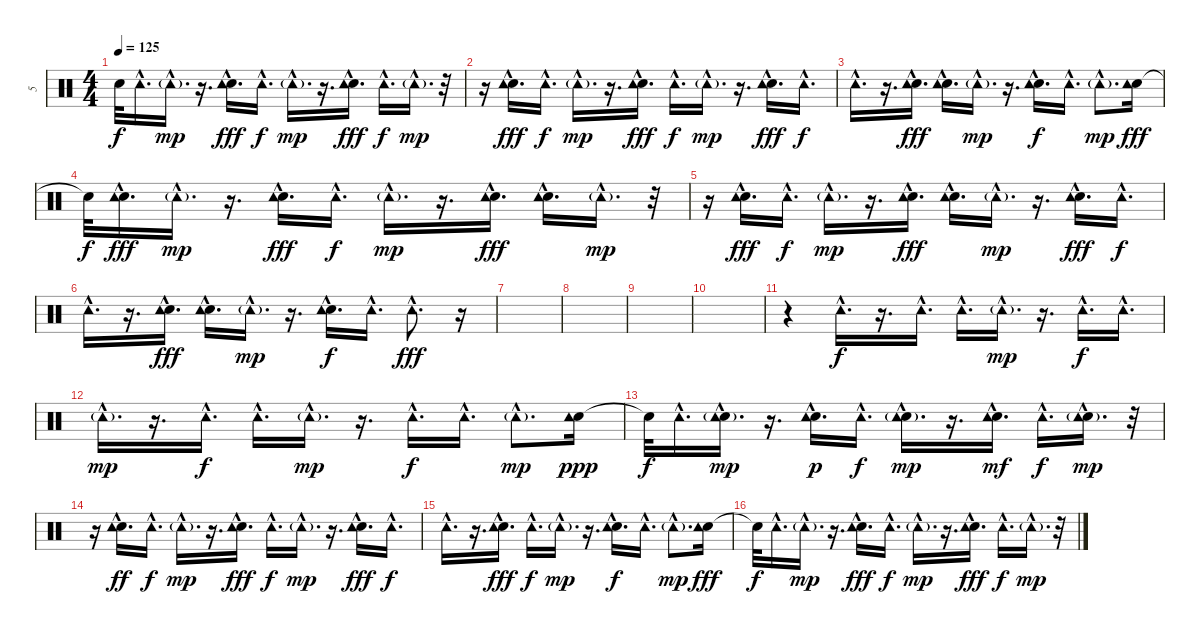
\track ("5" "5") {instrument percussion}
\staff {score}
\articulation defaults
\ts (4 4)
\tempo 125
\clef neutral
\ks c "Snare (hit)"{t}.32{dy f} "Tambourine (hit)"{hac}.16{d} "Tambourine (hit)"{g hac}.16{d dy mp}
r.16{d} ("Electric Snare (hit)"{hac} "Tambourine (hit)"{hac}).16{d dy fff} "Tambourine (hit)"{hac}.16{d dy f} "Tambourine (hit)"{g hac}.16{d dy mp} r.16{d} ("Electric Snare (hit)"{hac} "Tambourine (hit)"{hac}).16{d dy fff} "Tambourine (hit)"{hac}.16{d dy f} "Tambourine (hit)"{g hac}.16{d dy mp} r.32 |
r.16 ("Electric Snare (hit)"{hac} "Tambourine (hit)"{hac}).16{d dy fff} "Tambourine (hit)"{hac}.16{d dy f} "Tambourine (hit)"{g hac}.16{d dy mp} r.16{d} ("Electric Snare (hit)"{hac} "Tambourine (hit)"{hac}).16{d dy fff} "Tambourine (hit)"{hac}.16{d dy f} "Tambourine (hit)"{g hac}.16{d dy mp} r.16{d} ("Electric Snare (hit)"{hac} "Tambourine (hit)"{hac}).16{d dy fff} "Tambourine (hit)"{hac}.16{d dy f} |
"Tambourine (hit)"{hac}.16{d} r.16{d} ("Electric Snare (hit)"{hac} "Tambourine (hit)"{hac}).16{d dy fff} ("Electric Snare (hit)"{hac} "Tambourine (hit)"{hac}).16{d} "Tambourine (hit)"{g hac}.16{d dy mp} r.16{d} ("Electric Snare (hit)"{hac} "Tambourine (hit)"{hac}).16{d dy f} "Tambourine (hit)"{hac}.16{d} "Tambourine (hit)"{g hac}.8{d dy mp} ("Electric Snare (hit)" "Tambourine (hit)").16{dy fff} |
"Snare (hit)"{t}.32{dy f} ("Electric Snare (hit)"{hac} "Tambourine (hit)"{hac}).16{d dy fff} "Tambourine (hit)"{g hac}.16{d dy mp} r.16{d} ("Electric Snare (hit)"{hac} "Tambourine (hit)"{hac}).16{d dy fff} "Tambourine (hit)"{hac}.16{d dy f} "Tambourine (hit)"{g hac}.16{d dy mp} r.16{d} ("Electric Snare (hit)"{hac} "Tambourine (hit)"{hac}).16{d dy fff} ("Electric Snare (hit)"{hac} "Tambourine (hit)"{hac}).16{d} "Tambourine (hit)"{g hac}.16{d dy mp} r.32 |
r.16 ("Electric Snare (hit)"{hac} "Tambourine (hit)"{hac}).16{d dy fff} "Tambourine (hit)"{hac}.16{d dy f} "Tambourine (hit)"{g hac}.16{d dy mp} r.16{d} ("Electric Snare (hit)"{hac} "Tambourine (hit)"{hac}).16{d dy fff} ("Electric Snare (hit)"{hac} "Tambourine (hit)"{hac}).16{d} "Tambourine (hit)"{g hac}.16{d dy mp} r.16{d} ("Electric Snare (hit)"{hac} "Tambourine (hit)"{hac}).16{d dy fff} "Tambourine (hit)"{hac}.16{d dy f} |
"Tambourine (hit)"{hac}.16{d} r.16{d} ("Electric Snare (hit)"{hac} "Tambourine (hit)"{hac}).16{d dy fff} ("Electric Snare (hit)"{hac} "Tambourine (hit)"{hac}).16{d} "Tambourine (hit)"{g hac}.16{d dy mp} r.16{d} ("Electric Snare (hit)"{hac} "Tambourine (hit)"{hac}).16{d dy f} "Tambourine (hit)"{hac}.16{d} "Tambourine (hit)"{hac}.8{d dy fff} r.16 |
|
|
|
|
r.4 "Tambourine (hit)"{hac}.16{d dy f} r.16{d} "Tambourine (hit)"{hac}.16{d} "Tambourine (hit)"{hac}.16{d} "Tambourine (hit)"{g hac}.16{d dy mp} r.16{d} "Tambourine (hit)"{hac}.16{d dy f} "Tambourine (hit)"{hac}.16{d} |
"Tambourine (hit)"{g hac}.16{d dy mp} r.16{d} "Tambourine (hit)"{hac}.16{d dy f} "Tambourine (hit)"{hac}.16{d} "Tambourine (hit)"{g hac}.16{d dy mp} r.16{d} "Tambourine (hit)"{hac}.16{d dy f} "Tambourine (hit)"{hac}.16{d} "Tambourine (hit)"{g hac}.8{d dy mp} ("Electric Snare (hit)" "Tambourine (hit)").16{dy ppp} |
"Snare (hit)"{t}.32{dy f} "Tambourine (hit)"{hac}.16{d} ("Electric Snare (hit)"{hac} "Tambourine (hit)"{g hac}).16{d dy mp} r.16{d} ("Electric Snare (hit)"{hac} "Tambourine (hit)"{hac}).16{d dy p} "Tambourine (hit)"{hac}.16{d dy f} ("Electric Snare (hit)"{hac} "Tambourine (hit)"{g hac}).16{d dy mp} r.16{d} ("Electric Snare (hit)"{hac} "Tambourine (hit)"{hac}).16{d dy mf} "Tambourine (hit)"{hac}.16{d dy f} ("Electric Snare (hit)"{hac} "Tambourine (hit)"{g hac}).16{d dy mp} r.32 |
r.16 ("Electric Snare (hit)"{hac} "Tambourine (hit)"{hac}).16{d dy ff} "Tambourine (hit)"{hac}.16{d dy f} "Tambourine (hit)"{g hac}.16{d dy mp} r.16{d} ("Electric Snare (hit)"{hac} "Tambourine (hit)"{hac}).16{d dy fff} "Tambourine (hit)"{hac}.16{d dy f} "Tambourine (hit)"{g hac}.16{d dy mp} r.16{d} ("Electric Snare (hit)"{hac} "Tambourine (hit)"{hac}).16{d dy fff} "Tambourine (hit)"{hac}.16{d dy f} |
"Tambourine (hit)"{hac}.16{d} r.16{d} ("Electric Snare (hit)"{hac} "Tambourine (hit)"{hac}).16{d dy fff} "Tambourine (hit)"{hac}.16{d dy f} "Tambourine (hit)"{g hac}.16{d dy mp} r.16{d} ("Electric Snare (hit)"{hac} "Tambourine (hit)"{hac}).16{d dy f} "Tambourine (hit)"{hac}.16{d} "Tambourine (hit)"{g hac}.8{d dy mp} ("Electric Snare (hit)" "Tambourine (hit)").16{dy fff} |
"Snare (hit)"{t}.32{dy f} "Tambourine (hit)"{hac}.16{d} "Tambourine (hit)"{g hac}.16{d dy mp} r.16{d} ("Electric Snare (hit)"{hac} "Tambourine (hit)"{hac}).16{d dy fff} "Tambourine (hit)"{hac}.16{d dy f} "Tambourine (hit)"{g hac}.16{d dy mp} r.16{d} ("Electric Snare (hit)"{hac} "Tambourine (hit)"{hac}).16{d dy fff} "Tambourine (hit)"{hac}.16{d dy f} "Tambourine (hit)"{g hac}.16{d dy mp} r.32
